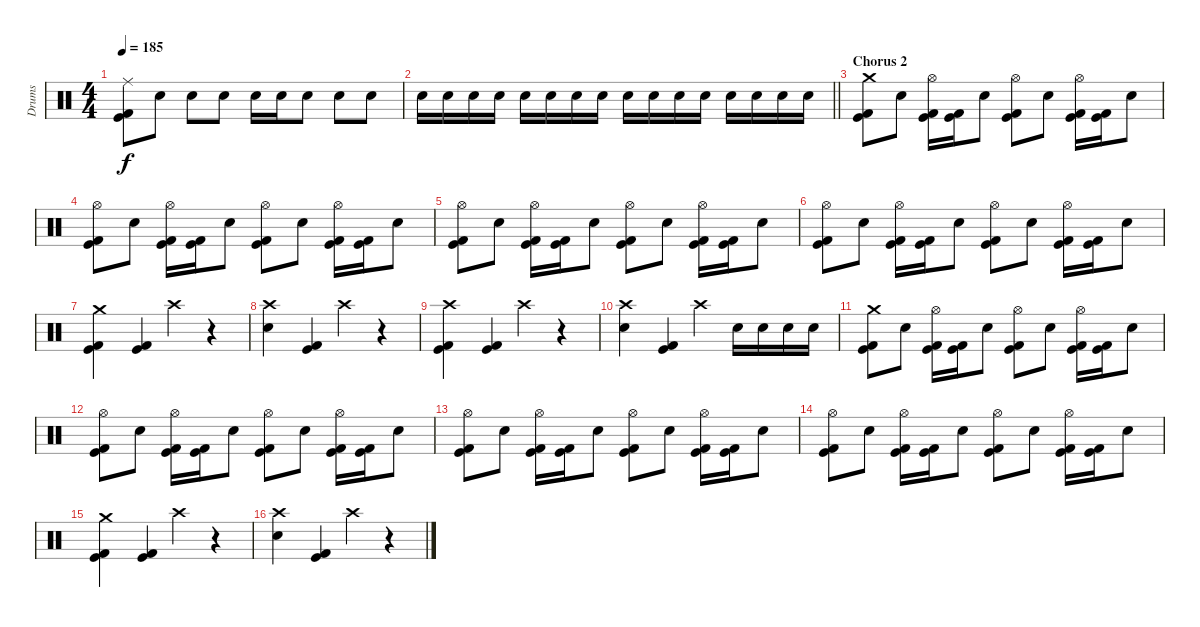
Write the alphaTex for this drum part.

\track ("Drums" "Drums") {instrument percussion}
\staff {score}
\articulation defaults
\ts (4 4)
\tempo 185
\clef neutral
\ks c
("Ride (middle)" "Kick (hit) 2" "Kick (hit)").8{dy f} "Electric Snare (hit)".8 "Electric Snare (hit)".8 "Electric Snare (hit)".8 "Electric Snare (hit)".16 "Electric Snare (hit)".16 "Electric Snare (hit)".8 "Electric Snare (hit)".8 "Electric Snare (hit)".8 |
\barLineRight lightlight "Electric Snare (hit)".16 "Electric Snare (hit)".16 "Electric Snare (hit)".16 "Electric Snare (hit)".16 "Electric Snare (hit)".16 "Electric Snare (hit)".16 "Electric Snare (hit)".16 "Electric Snare (hit)".16 "Electric Snare (hit)".16 "Electric Snare (hit)".16 "Electric Snare (hit)".16 "Electric Snare (hit)".16 "Electric Snare (hit)".16 "Electric Snare (hit)".16 "Electric Snare (hit)".16 "Electric Snare (hit)".16
|
\section ("" "Chorus 2")
("Crash medium (hit)" "Kick (hit) 2" "Kick (hit)").8 "Electric Snare (hit)".8 ("Hi-Hat (open)" "Kick (hit) 2" "Kick (hit)").16 ("Kick (hit) 2" "Kick (hit)").16 "Electric Snare (hit)".8 ("Hi-Hat (open)" "Kick (hit) 2" "Kick (hit)").8 "Electric Snare (hit)".8 ("Hi-Hat (open)" "Kick (hit) 2" "Kick (hit)").16 ("Kick (hit) 2" "Kick (hit)").16 "Electric Snare (hit)".8 |
("Hi-Hat (open)" "Kick (hit) 2" "Kick (hit)").8 "Electric Snare (hit)".8 ("Hi-Hat (open)" "Kick (hit) 2" "Kick (hit)").16 ("Kick (hit) 2" "Kick (hit)").16 "Electric Snare (hit)".8 ("Hi-Hat (open)" "Kick (hit) 2" "Kick (hit)").8 "Electric Snare (hit)".8 ("Hi-Hat (open)" "Kick (hit) 2" "Kick (hit)").16 ("Kick (hit) 2" "Kick (hit)").16 "Electric Snare (hit)".8 |
("Hi-Hat (open)" "Kick (hit) 2" "Kick (hit)").8 "Electric Snare (hit)".8 ("Hi-Hat (open)" "Kick (hit) 2" "Kick (hit)").16 ("Kick (hit) 2" "Kick (hit)").16 "Electric Snare (hit)".8 ("Hi-Hat (open)" "Kick (hit) 2" "Kick (hit)").8 "Electric Snare (hit)".8 ("Hi-Hat (open)" "Kick (hit) 2" "Kick (hit)").16 ("Kick (hit) 2" "Kick (hit)").16 "Electric Snare (hit)".8 |
("Hi-Hat (open)" "Kick (hit) 2" "Kick (hit)").8 "Electric Snare (hit)".8 ("Hi-Hat (open)" "Kick (hit) 2" "Kick (hit)").16 ("Kick (hit) 2" "Kick (hit)").16 "Electric Snare (hit)".8 ("Hi-Hat (open)" "Kick (hit) 2" "Kick (hit)").8 "Electric Snare (hit)".8 ("Hi-Hat (open)" "Kick (hit) 2" "Kick (hit)").16 ("Kick (hit) 2" "Kick (hit)").16 "Electric Snare (hit)".8 |
("Crash medium (hit)" "Kick (hit) 2" "Kick (hit)").4 ("Kick (hit) 2" "Kick (hit)").4 "Crash high (hit)".4 r.4 |
("Crash high (hit)" "Electric Snare (hit)").4 ("Kick (hit) 2" "Kick (hit)").4 "Crash high (hit)".4 r.4 |
("Crash high (hit)" "Kick (hit) 2" "Kick (hit)").4 ("Kick (hit) 2" "Kick (hit)").4 "Crash high (hit)".4 r.4 |
("Crash high (hit)" "Electric Snare (hit)").4 ("Kick (hit) 2" "Kick (hit)").4 "Crash high (hit)".4 "Electric Snare (hit)".16 "Electric Snare (hit)".16 "Electric Snare (hit)".16 "Electric Snare (hit)".16 |
("Crash medium (hit)" "Kick (hit) 2" "Kick (hit)").8 "Electric Snare (hit)".8 ("Hi-Hat (open)" "Kick (hit) 2" "Kick (hit)").16 ("Kick (hit) 2" "Kick (hit)").16 "Electric Snare (hit)".8 ("Hi-Hat (open)" "Kick (hit) 2" "Kick (hit)").8 "Electric Snare (hit)".8 ("Hi-Hat (open)" "Kick (hit) 2" "Kick (hit)").16 ("Kick (hit) 2" "Kick (hit)").16 "Electric Snare (hit)".8 |
("Hi-Hat (open)" "Kick (hit) 2" "Kick (hit)").8 "Electric Snare (hit)".8 ("Hi-Hat (open)" "Kick (hit) 2" "Kick (hit)").16 ("Kick (hit) 2" "Kick (hit)").16 "Electric Snare (hit)".8 ("Hi-Hat (open)" "Kick (hit) 2" "Kick (hit)").8 "Electric Snare (hit)".8 ("Hi-Hat (open)" "Kick (hit) 2" "Kick (hit)").16 ("Kick (hit) 2" "Kick (hit)").16 "Electric Snare (hit)".8 |
("Hi-Hat (open)" "Kick (hit) 2" "Kick (hit)").8 "Electric Snare (hit)".8 ("Hi-Hat (open)" "Kick (hit) 2" "Kick (hit)").16 ("Kick (hit) 2" "Kick (hit)").16 "Electric Snare (hit)".8 ("Hi-Hat (open)" "Kick (hit) 2" "Kick (hit)").8 "Electric Snare (hit)".8 ("Hi-Hat (open)" "Kick (hit) 2" "Kick (hit)").16 ("Kick (hit) 2" "Kick (hit)").16 "Electric Snare (hit)".8 |
("Hi-Hat (open)" "Kick (hit) 2" "Kick (hit)").8 "Electric Snare (hit)".8 ("Hi-Hat (open)" "Kick (hit) 2" "Kick (hit)").16 ("Kick (hit) 2" "Kick (hit)").16 "Electric Snare (hit)".8 ("Hi-Hat (open)" "Kick (hit) 2" "Kick (hit)").8 "Electric Snare (hit)".8 ("Hi-Hat (open)" "Kick (hit) 2" "Kick (hit)").16 ("Kick (hit) 2" "Kick (hit)").16 "Electric Snare (hit)".8 |
("Crash medium (hit)" "Kick (hit) 2" "Kick (hit)").4 ("Kick (hit) 2" "Kick (hit)").4 "Crash high (hit)".4 r.4 |
("Crash high (hit)" "Electric Snare (hit)").4 ("Kick (hit) 2" "Kick (hit)").4 "Crash high (hit)".4 r.4
